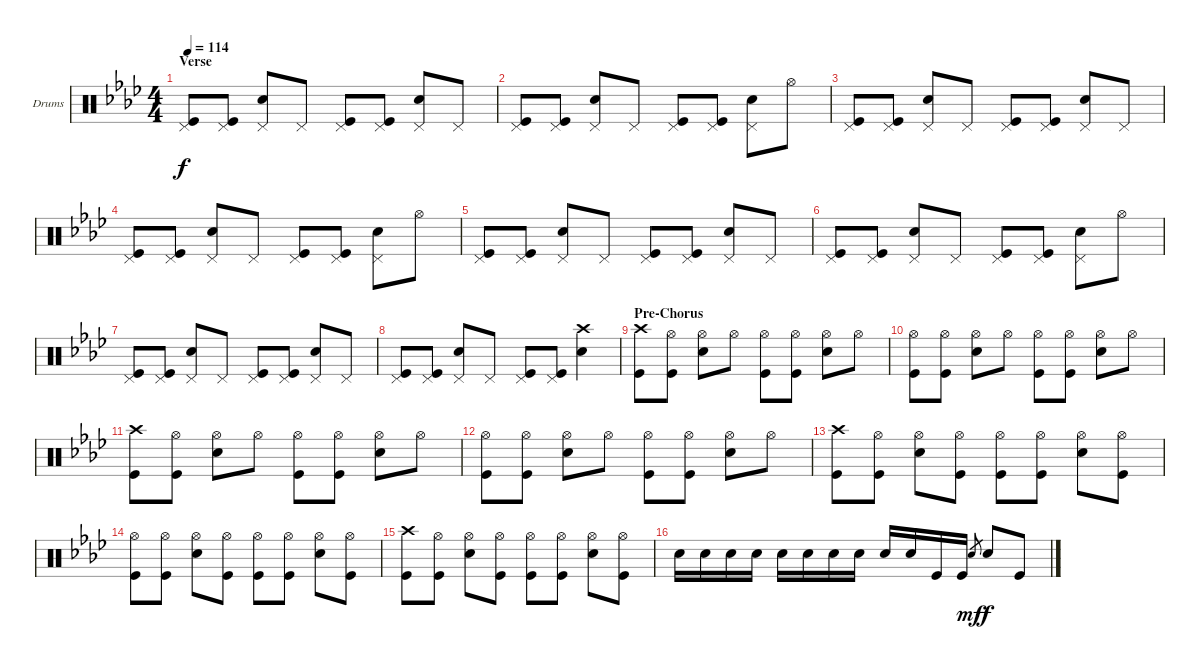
\defaultSystemsLayout 4
\bracketExtendMode groupsimilarinstruments
\firstSystemTrackNameOrientation horizontal
\otherSystemsTrackNameOrientation horizontal
\track ("Drumkit" "Drums") {instrument percussion}
\staff {score}
\articulation defaults
\ts (4 4)
\section ("" "Verse")
\tempo 114
\clef neutral
\scale
1.06431
\ks ab
("Pedal Hi-Hat (hit)" "Kick (hit)").8{dy f} ("Pedal Hi-Hat (hit)" "Kick (hit)").8 ("Pedal Hi-Hat (hit)" "Snare (hit) 2").8 "Pedal Hi-Hat (hit)".8 ("Pedal Hi-Hat (hit)" "Kick (hit)").8 ("Pedal Hi-Hat (hit)" "Kick (hit)").8 ("Pedal Hi-Hat (hit)" "Snare (hit) 2").8 "Pedal Hi-Hat (hit)".8 |
\scale
0.935687 ("Pedal Hi-Hat (hit)" "Kick (hit)").8 ("Pedal Hi-Hat (hit)" "Kick (hit)").8 ("Pedal Hi-Hat (hit)" "Snare (hit) 2").8 "Pedal Hi-Hat (hit)".8 ("Pedal Hi-Hat (hit)" "Kick (hit)").8 ("Pedal Hi-Hat (hit)" "Kick (hit)").8 ("Pedal Hi-Hat (hit)" "Snare (hit) 2").8 "Hi-Hat (open)".8 |
\scale
1.06431 ("Pedal Hi-Hat (hit)" "Kick (hit)").8 ("Pedal Hi-Hat (hit)" "Kick (hit)").8 ("Pedal Hi-Hat (hit)" "Snare (hit) 2").8 "Pedal Hi-Hat (hit)".8 ("Pedal Hi-Hat (hit)" "Kick (hit)").8 ("Pedal Hi-Hat (hit)" "Kick (hit)").8 ("Pedal Hi-Hat (hit)" "Snare (hit) 2").8 "Pedal Hi-Hat (hit)".8 |
\scale
0.935687 ("Pedal Hi-Hat (hit)" "Kick (hit)").8 ("Pedal Hi-Hat (hit)" "Kick (hit)").8 ("Pedal Hi-Hat (hit)" "Snare (hit) 2").8 "Pedal Hi-Hat (hit)".8 ("Pedal Hi-Hat (hit)" "Kick (hit)").8 ("Pedal Hi-Hat (hit)" "Kick (hit)").8 ("Pedal Hi-Hat (hit)" "Snare (hit) 2").8 "Hi-Hat (open)".8 |
\scale
1.06431 ("Pedal Hi-Hat (hit)" "Kick (hit)").8 ("Pedal Hi-Hat (hit)" "Kick (hit)").8 ("Pedal Hi-Hat (hit)" "Snare (hit) 2").8 "Pedal Hi-Hat (hit)".8 ("Pedal Hi-Hat (hit)" "Kick (hit)").8 ("Pedal Hi-Hat (hit)" "Kick (hit)").8 ("Pedal Hi-Hat (hit)" "Snare (hit) 2").8 "Pedal Hi-Hat (hit)".8 |
\scale
0.935687 ("Pedal Hi-Hat (hit)" "Kick (hit)").8 ("Pedal Hi-Hat (hit)" "Kick (hit)").8 ("Pedal Hi-Hat (hit)" "Snare (hit) 2").8 "Pedal Hi-Hat (hit)".8 ("Pedal Hi-Hat (hit)" "Kick (hit)").8 ("Pedal Hi-Hat (hit)" "Kick (hit)").8 ("Pedal Hi-Hat (hit)" "Snare (hit) 2").8 "Hi-Hat (open)".8 |
\scale
1.06431 ("Pedal Hi-Hat (hit)" "Kick (hit)").8 ("Pedal Hi-Hat (hit)" "Kick (hit)").8 ("Pedal Hi-Hat (hit)" "Snare (hit) 2").8 "Pedal Hi-Hat (hit)".8 ("Pedal Hi-Hat (hit)" "Kick (hit)").8 ("Pedal Hi-Hat (hit)" "Kick (hit)").8 ("Pedal Hi-Hat (hit)" "Snare (hit) 2").8 "Pedal Hi-Hat (hit)".8 |
\scale
0.935687 ("Pedal Hi-Hat (hit)" "Kick (hit)").8 ("Pedal Hi-Hat (hit)" "Kick (hit)").8 ("Pedal Hi-Hat (hit)" "Snare (hit) 2").8 "Pedal Hi-Hat (hit)".8 ("Pedal Hi-Hat (hit)" "Kick (hit)").8 ("Pedal Hi-Hat (hit)" "Kick (hit)").8 ("Crash high (hit)" "Snare (hit) 2").4 |
\section ("" "Pre-Chorus")
\scale
1.06431 ("Crash high (hit)" "Kick (hit)").8 ("Hi-Hat (open)" "Kick (hit)").8 ("Hi-Hat (open)" "Snare (hit) 2").8 "Hi-Hat (open)".8 ("Hi-Hat (open)" "Kick (hit)").8 ("Hi-Hat (open)" "Kick (hit)").8 ("Hi-Hat (open)" "Snare (hit) 2").8 "Hi-Hat (open)".8 |
\scale
0.935687 ("Hi-Hat (open)" "Kick (hit)").8 ("Hi-Hat (open)" "Kick (hit)").8 ("Hi-Hat (open)" "Snare (hit) 2").8 "Hi-Hat (open)".8 ("Hi-Hat (open)" "Kick (hit)").8 ("Hi-Hat (open)" "Kick (hit)").8 ("Hi-Hat (open)" "Snare (hit) 2").8 "Hi-Hat (open)".8 |
\scale
1.06431 ("Crash high (hit)" "Kick (hit)").8 ("Hi-Hat (open)" "Kick (hit)").8 ("Hi-Hat (open)" "Snare (hit) 2").8 "Hi-Hat (open)".8 ("Hi-Hat (open)" "Kick (hit)").8 ("Hi-Hat (open)" "Kick (hit)").8 ("Hi-Hat (open)" "Snare (hit) 2").8 "Hi-Hat (open)".8 |
\scale
0.935687 ("Hi-Hat (open)" "Kick (hit)").8 ("Hi-Hat (open)" "Kick (hit)").8 ("Hi-Hat (open)" "Snare (hit) 2").8 "Hi-Hat (open)".8 ("Hi-Hat (open)" "Kick (hit)").8 ("Hi-Hat (open)" "Kick (hit)").8 ("Hi-Hat (open)" "Snare (hit) 2").8 "Hi-Hat (open)".8 |
\scale
1.06431 ("Crash high (hit)" "Kick (hit)").8 ("Hi-Hat (open)" "Kick (hit)").8 ("Hi-Hat (open)" "Snare (hit) 2").8 ("Hi-Hat (open)" "Kick (hit)").8 ("Hi-Hat (open)" "Kick (hit)").8 ("Hi-Hat (open)" "Kick (hit)").8 ("Hi-Hat (open)" "Snare (hit) 2").8 ("Hi-Hat (open)" "Kick (hit)").8 |
\scale
0.935687 ("Hi-Hat (open)" "Kick (hit)").8 ("Hi-Hat (open)" "Kick (hit)").8 ("Hi-Hat (open)" "Snare (hit) 2").8 ("Hi-Hat (open)" "Kick (hit)").8 ("Hi-Hat (open)" "Kick (hit)").8 ("Hi-Hat (open)" "Kick (hit)").8 ("Hi-Hat (open)" "Snare (hit) 2").8 ("Hi-Hat (open)" "Kick (hit)").8 |
\scale
1.06431 ("Crash high (hit)" "Kick (hit)").8 ("Hi-Hat (open)" "Kick (hit)").8 ("Hi-Hat (open)" "Snare (hit) 2").8 ("Hi-Hat (open)" "Kick (hit)").8 ("Hi-Hat (open)" "Kick (hit)").8 ("Hi-Hat (open)" "Kick (hit)").8 ("Hi-Hat (open)" "Snare (hit) 2").8 ("Hi-Hat (open)" "Kick (hit)").8 |
\scale
0.935687 "Snare (hit) 2".16 "Snare (hit) 2".16 "Snare (hit) 2".16 "Snare (hit) 2".16 "Snare (hit) 2".16 "Snare (hit) 2".16 "Snare (hit) 2".16 "Snare (hit) 2".16 "Snare (hit) 2".16 "Snare (hit) 2".16 "Kick (hit)".16 "Kick (hit)".16 "Snare (hit) 2".8{gr dy mf} "Snare (hit) 2".8{dy f} "Kick (hit)".8
